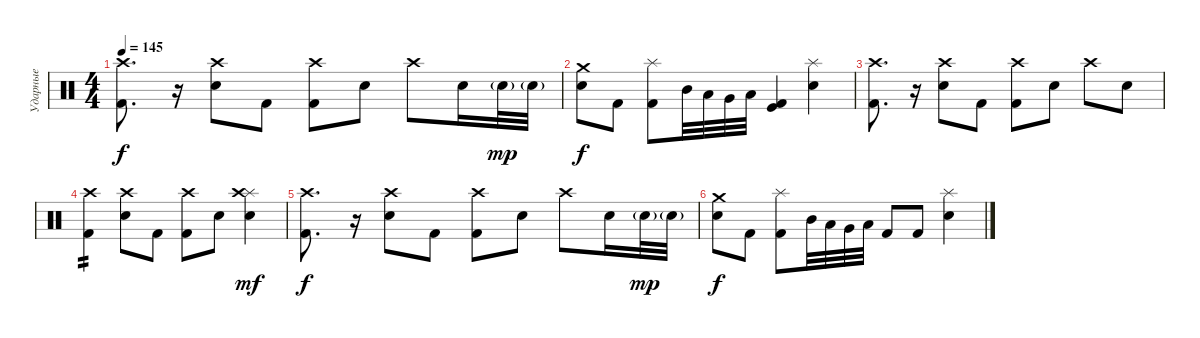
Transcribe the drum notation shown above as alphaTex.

\track ("Ударные" "Ударные") {instrument percussion}
\staff {score}
\articulation defaults
\ts (4 4)
\tempo 145
\clef neutral
\ks c
("Kick (hit) 2" "Crash high (hit)").8{d dy f} r.16 ("Snare (hit) 2" "Crash high (hit)").8 "Kick (hit) 2".8 ("Kick (hit) 2" "Crash high (hit)").8 "Snare (hit) 2".8 "Crash high (hit)".8 "Snare (hit) 2".16 "Snare (hit) 2"{g}.32{dy mp} "Snare (hit) 2"{g}.32 |
("Snare (hit) 2" "Crash medium (hit)").8{dy f} "Kick (hit) 2".8 ("Kick (hit) 2" "Splash (hit)").8 "Mid Tom (hit)".32 "Low Tom (hit)".32 "Very Low Tom (hit)".32 "Low Floor Tom (hit)".32 ("Kick (hit)" "Kick (hit) 2").4 ("Snare (hit) 2" "Splash (hit)").4 |
("Kick (hit) 2" "Crash high (hit)").8{d} r.16 ("Snare (hit) 2" "Crash high (hit)").8 "Kick (hit) 2".8 ("Kick (hit) 2" "Crash high (hit)").8 "Snare (hit) 2".8 "Crash high (hit)".8 "Snare (hit) 2".8 |
("Kick (hit) 2" "Crash high (hit)").4{tp 2} ("Snare (hit) 2" "Crash high (hit)").8 "Kick (hit) 2".8 ("Kick (hit) 2" "Crash high (hit)").8 "Snare (hit) 2".8 ("Snare (hit) 2" "Splash (hit)" "Crash high (hit)").4{dy mf} |
("Kick (hit) 2" "Crash high (hit)").8{d dy f} r.16 ("Snare (hit) 2" "Crash high (hit)").8 "Kick (hit) 2".8 ("Kick (hit) 2" "Crash high (hit)").8 "Snare (hit) 2".8 "Crash high (hit)".8 "Snare (hit) 2".16 "Snare (hit) 2"{g}.32{dy mp} "Snare (hit) 2"{g}.32 |
("Snare (hit) 2" "Crash medium (hit)").8{dy f} "Kick (hit) 2".8 ("Kick (hit) 2" "Splash (hit)").8 "Mid Tom (hit)".32 "Low Tom (hit)".32 "Very Low Tom (hit)".32 "Low Floor Tom (hit)".32 "Kick (hit) 2".8 "Kick (hit) 2".8 ("Snare (hit) 2" "Splash (hit)").4
